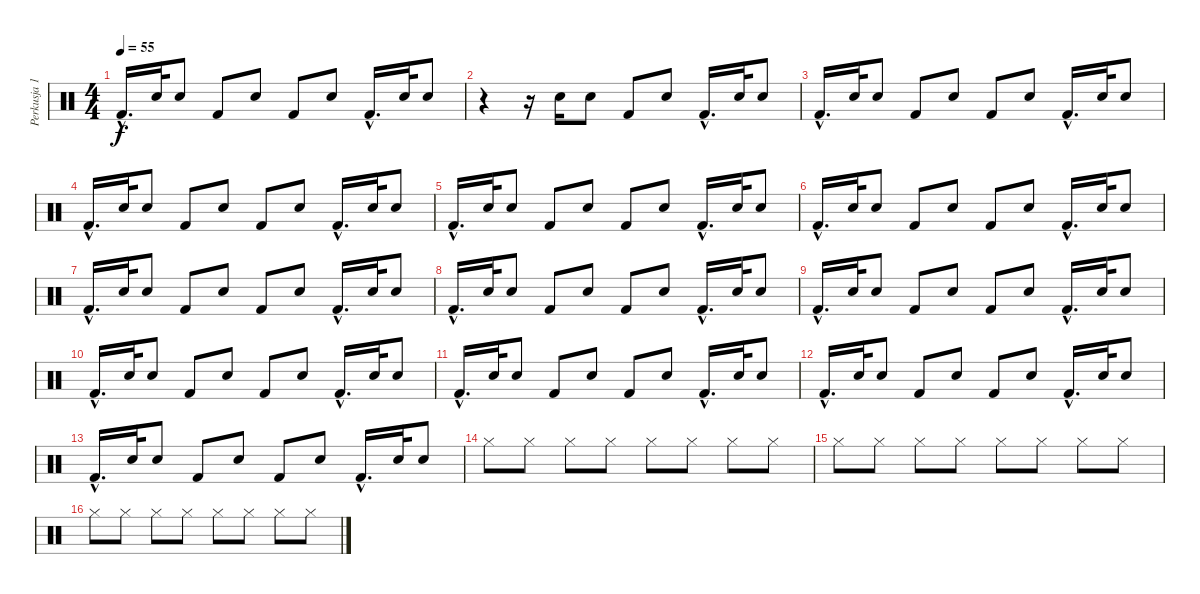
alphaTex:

\track ("Perkusja 1" "Perkusja 1") {instrument percussion}
\staff {score}
\articulation defaults
\ts (4 4)
\tempo 55
\clef neutral
\ks c "Kick (hit) 2"{hac}.16{d dy f} "Electric Snare (hit)".32 "Electric Snare (hit)".8 "Kick (hit) 2".8 "Electric Snare (hit)".8 "Kick (hit) 2".8 "Electric Snare (hit)".8 "Kick (hit) 2"{hac}.16{d} "Electric Snare (hit)".32 "Electric Snare (hit)".8
|
r.4 r.16 "Electric Snare (hit)".16 "Electric Snare (hit)".8 "Kick (hit) 2".8 "Electric Snare (hit)".8 "Kick (hit) 2"{hac}.16{d} "Electric Snare (hit)".32 "Electric Snare (hit)".8 |
"Kick (hit) 2"{hac}.16{d} "Electric Snare (hit)".32 "Electric Snare (hit)".8 "Kick (hit) 2".8 "Electric Snare (hit)".8 "Kick (hit) 2".8 "Electric Snare (hit)".8 "Kick (hit) 2"{hac}.16{d} "Electric Snare (hit)".32 "Electric Snare (hit)".8 |
"Kick (hit) 2"{hac}.16{d} "Electric Snare (hit)".32 "Electric Snare (hit)".8 "Kick (hit) 2".8 "Electric Snare (hit)".8 "Kick (hit) 2".8 "Electric Snare (hit)".8 "Kick (hit) 2"{hac}.16{d} "Electric Snare (hit)".32 "Electric Snare (hit)".8 |
"Kick (hit) 2"{hac}.16{d} "Electric Snare (hit)".32 "Electric Snare (hit)".8 "Kick (hit) 2".8 "Electric Snare (hit)".8 "Kick (hit) 2".8 "Electric Snare (hit)".8 "Kick (hit) 2"{hac}.16{d} "Electric Snare (hit)".32 "Electric Snare (hit)".8 |
"Kick (hit) 2"{hac}.16{d} "Electric Snare (hit)".32 "Electric Snare (hit)".8 "Kick (hit) 2".8 "Electric Snare (hit)".8 "Kick (hit) 2".8 "Electric Snare (hit)".8 "Kick (hit) 2"{hac}.16{d} "Electric Snare (hit)".32 "Electric Snare (hit)".8 |
"Kick (hit) 2"{hac}.16{d} "Electric Snare (hit)".32 "Electric Snare (hit)".8 "Kick (hit) 2".8 "Electric Snare (hit)".8 "Kick (hit) 2".8 "Electric Snare (hit)".8 "Kick (hit) 2"{hac}.16{d} "Electric Snare (hit)".32 "Electric Snare (hit)".8 |
"Kick (hit) 2"{hac}.16{d} "Electric Snare (hit)".32 "Electric Snare (hit)".8 "Kick (hit) 2".8 "Electric Snare (hit)".8 "Kick (hit) 2".8 "Electric Snare (hit)".8 "Kick (hit) 2"{hac}.16{d} "Electric Snare (hit)".32 "Electric Snare (hit)".8 |
"Kick (hit) 2"{hac}.16{d} "Electric Snare (hit)".32 "Electric Snare (hit)".8 "Kick (hit) 2".8 "Electric Snare (hit)".8 "Kick (hit) 2".8 "Electric Snare (hit)".8 "Kick (hit) 2"{hac}.16{d} "Electric Snare (hit)".32 "Electric Snare (hit)".8 |
"Kick (hit) 2"{hac}.16{d} "Electric Snare (hit)".32 "Electric Snare (hit)".8 "Kick (hit) 2".8 "Electric Snare (hit)".8 "Kick (hit) 2".8 "Electric Snare (hit)".8 "Kick (hit) 2"{hac}.16{d} "Electric Snare (hit)".32 "Electric Snare (hit)".8 |
"Kick (hit) 2"{hac}.16{d} "Electric Snare (hit)".32 "Electric Snare (hit)".8 "Kick (hit) 2".8 "Electric Snare (hit)".8 "Kick (hit) 2".8 "Electric Snare (hit)".8 "Kick (hit) 2"{hac}.16{d} "Electric Snare (hit)".32 "Electric Snare (hit)".8 |
"Kick (hit) 2"{hac}.16{d} "Electric Snare (hit)".32 "Electric Snare (hit)".8 "Kick (hit) 2".8 "Electric Snare (hit)".8 "Kick (hit) 2".8 "Electric Snare (hit)".8 "Kick (hit) 2"{hac}.16{d} "Electric Snare (hit)".32 "Electric Snare (hit)".8 |
"Kick (hit) 2"{hac}.16{d} "Electric Snare (hit)".32 "Electric Snare (hit)".8 "Kick (hit) 2".8 "Electric Snare (hit)".8 "Kick (hit) 2".8 "Electric Snare (hit)".8 "Kick (hit) 2"{hac}.16{d} "Electric Snare (hit)".32 "Electric Snare (hit)".8 |
"Hi-Hat (closed)".8 "Hi-Hat (closed)".8 "Hi-Hat (closed)".8 "Hi-Hat (closed)".8 "Hi-Hat (closed)".8 "Hi-Hat (closed)".8 "Hi-Hat (closed)".8 "Hi-Hat (closed)".8 |
"Hi-Hat (closed)".8 "Hi-Hat (closed)".8 "Hi-Hat (closed)".8 "Hi-Hat (closed)".8 "Hi-Hat (closed)".8 "Hi-Hat (closed)".8 "Hi-Hat (closed)".8 "Hi-Hat (closed)".8 |
"Hi-Hat (closed)".8 "Hi-Hat (closed)".8 "Hi-Hat (closed)".8 "Hi-Hat (closed)".8 "Hi-Hat (closed)".8 "Hi-Hat (closed)".8 "Hi-Hat (closed)".8 "Hi-Hat (closed)".8
